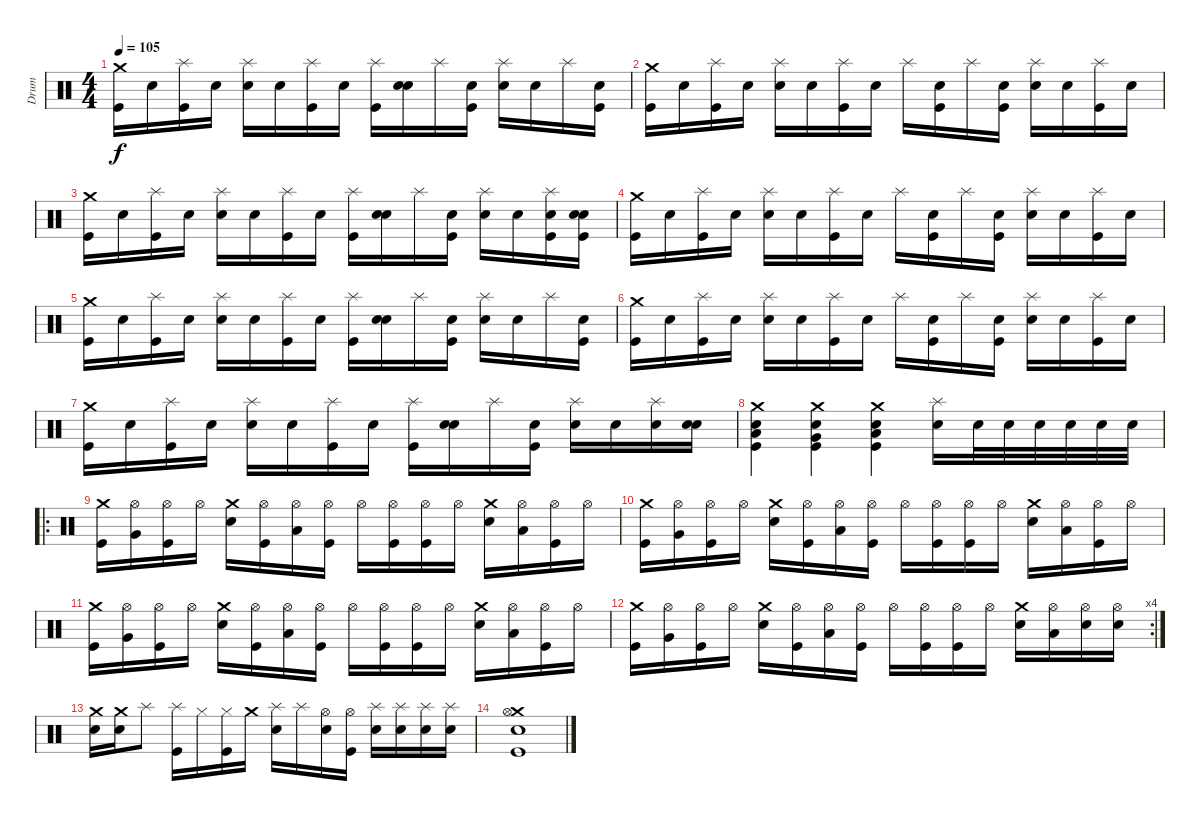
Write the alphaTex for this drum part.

\track ("Drum" "Drum") {instrument percussion}
\staff {score}
\articulation defaults
\ts (4 4)
\tempo 105
\clef neutral
\ks c
("Crash medium (hit)" "Kick (hit)").16{dy f} "Snare (hit)".16 ("Splash (hit)" "Kick (hit)").16 "Snare (hit)".16 ("Splash (hit)" "Electric Snare (hit)").16 "Snare (hit)".16 ("Splash (hit)" "Kick (hit)").16 "Snare (hit)".16 ("Splash (hit)" "Kick (hit)").16 ("Snare (hit)" "Electric Snare (hit)").16 "Splash (hit)".16 ("Snare (hit)" "Kick (hit)").16 ("Splash (hit)" "Electric Snare (hit)").16 "Snare (hit)".16 "Splash (hit)".16 ("Snare (hit)" "Kick (hit)").16 |
("Crash medium (hit)" "Kick (hit)").16 "Snare (hit)".16 ("Splash (hit)" "Kick (hit)").16 "Snare (hit)".16 ("Splash (hit)" "Electric Snare (hit)").16 "Snare (hit)".16 ("Splash (hit)" "Kick (hit)").16 "Snare (hit)".16 "Splash (hit)".16 ("Snare (hit)" "Kick (hit)").16 "Splash (hit)".16 ("Snare (hit)" "Kick (hit)").16 ("Splash (hit)" "Electric Snare (hit)").16 "Snare (hit)".16 ("Splash (hit)" "Kick (hit)").16 "Snare (hit)".16 |
("Crash medium (hit)" "Kick (hit)").16 "Snare (hit)".16 ("Splash (hit)" "Kick (hit)").16 "Snare (hit)".16 ("Splash (hit)" "Electric Snare (hit)").16 "Snare (hit)".16 ("Splash (hit)" "Kick (hit)").16 "Snare (hit)".16 ("Splash (hit)" "Kick (hit)").16 ("Snare (hit)" "Electric Snare (hit)").16 "Splash (hit)".16 ("Snare (hit)" "Kick (hit)").16 ("Splash (hit)" "Electric Snare (hit)").16 "Snare (hit)".16 ("Splash (hit)" "Electric Snare (hit)" "Kick (hit)").16 ("Snare (hit)" "Electric Snare (hit)" "Kick (hit)").16 |
("Crash medium (hit)" "Kick (hit)").16 "Snare (hit)".16 ("Splash (hit)" "Kick (hit)").16 "Snare (hit)".16 ("Splash (hit)" "Electric Snare (hit)").16 "Snare (hit)".16 ("Splash (hit)" "Kick (hit)").16 "Snare (hit)".16 "Splash (hit)".16 ("Snare (hit)" "Kick (hit)").16 "Splash (hit)".16 ("Snare (hit)" "Kick (hit)").16 ("Splash (hit)" "Electric Snare (hit)").16 "Snare (hit)".16 ("Splash (hit)" "Kick (hit)").16 "Snare (hit)".16 |
("Crash medium (hit)" "Kick (hit)").16 "Snare (hit)".16 ("Splash (hit)" "Kick (hit)").16 "Snare (hit)".16 ("Splash (hit)" "Electric Snare (hit)").16 "Snare (hit)".16 ("Splash (hit)" "Kick (hit)").16 "Snare (hit)".16 ("Splash (hit)" "Kick (hit)").16 ("Snare (hit)" "Electric Snare (hit)").16 "Splash (hit)".16 ("Snare (hit)" "Kick (hit)").16 ("Splash (hit)" "Electric Snare (hit)").16 "Snare (hit)".16 "Splash (hit)".16 ("Snare (hit)" "Kick (hit)").16 |
("Crash medium (hit)" "Kick (hit)").16 "Snare (hit)".16 ("Splash (hit)" "Kick (hit)").16 "Snare (hit)".16 ("Splash (hit)" "Electric Snare (hit)").16 "Snare (hit)".16 ("Splash (hit)" "Kick (hit)").16 "Snare (hit)".16 "Splash (hit)".16 ("Snare (hit)" "Kick (hit)").16 "Splash (hit)".16 ("Snare (hit)" "Kick (hit)").16 ("Splash (hit)" "Electric Snare (hit)").16 "Snare (hit)".16 ("Splash (hit)" "Kick (hit)").16 "Snare (hit)".16 |
("Crash medium (hit)" "Kick (hit)").16 "Snare (hit)".16 ("Splash (hit)" "Kick (hit)").16 "Snare (hit)".16 ("Splash (hit)" "Electric Snare (hit)").16 "Snare (hit)".16 ("Splash (hit)" "Kick (hit)").16 "Snare (hit)".16 ("Splash (hit)" "Kick (hit)").16 ("Snare (hit)" "Electric Snare (hit)").16 "Splash (hit)".16 ("Snare (hit)" "Kick (hit)").16 ("Splash (hit)" "Electric Snare (hit)").16 "Snare (hit)".16 ("Splash (hit)" "Electric Snare (hit)").16 ("Snare (hit)" "Electric Snare (hit)").16 |
("Crash medium (hit)" "Low Tom (hit)" "Electric Snare (hit)" "Kick (hit)").4 ("Crash medium (hit)" "Very Low Tom (hit)" "Electric Snare (hit)" "Kick (hit)").4 ("Crash medium (hit)" "Low Floor Tom (hit)" "Electric Snare (hit)" "Kick (hit)").4 ("Splash (hit)" "Electric Snare (hit)").16 "Electric Snare (hit)".32 "Electric Snare (hit)".32 "Electric Snare (hit)".32 "Electric Snare (hit)".32 "Electric Snare (hit)".32 "Electric Snare (hit)".32 |
\ro
("Crash medium (hit)" "Kick (hit)").16 ("Hi-Hat (open)" "Very Low Tom (hit)").16 ("Hi-Hat (open)" "Kick (hit)").16 "Hi-Hat (open)".16 ("Crash medium (hit)" "Electric Snare (hit)").16 ("Hi-Hat (open)" "Kick (hit)").16 ("Hi-Hat (open)" "Low Tom (hit)").16 ("Hi-Hat (open)" "Kick (hit)").16 "Hi-Hat (open)".16 ("Hi-Hat (open)" "Kick (hit)").16 ("Hi-Hat (open)" "Kick (hit)").16 "Hi-Hat (open)".16 ("Crash medium (hit)" "Electric Snare (hit)").16 ("Hi-Hat (open)" "Low Floor Tom (hit)").16 ("Hi-Hat (open)" "Kick (hit)").16 "Hi-Hat (open)".16 |
("Crash medium (hit)" "Kick (hit)").16 ("Hi-Hat (open)" "Very Low Tom (hit)").16 ("Hi-Hat (open)" "Kick (hit)").16 "Hi-Hat (open)".16 ("Crash medium (hit)" "Electric Snare (hit)").16 ("Hi-Hat (open)" "Kick (hit)").16 ("Hi-Hat (open)" "Low Tom (hit)").16 ("Hi-Hat (open)" "Kick (hit)").16 "Hi-Hat (open)".16 ("Hi-Hat (open)" "Kick (hit)").16 ("Hi-Hat (open)" "Kick (hit)").16 "Hi-Hat (open)".16 ("Crash medium (hit)" "Electric Snare (hit)").16 ("Hi-Hat (open)" "Low Floor Tom (hit)").16 ("Hi-Hat (open)" "Kick (hit)").16 "Hi-Hat (open)".16 |
("Crash medium (hit)" "Kick (hit)").16 ("Hi-Hat (open)" "Very Low Tom (hit)").16 ("Hi-Hat (open)" "Kick (hit)").16 "Hi-Hat (open)".16 ("Crash medium (hit)" "Electric Snare (hit)").16 ("Hi-Hat (open)" "Kick (hit)").16 ("Hi-Hat (open)" "Low Tom (hit)").16 ("Hi-Hat (open)" "Kick (hit)").16 "Hi-Hat (open)".16 ("Hi-Hat (open)" "Kick (hit)").16 ("Hi-Hat (open)" "Kick (hit)").16 "Hi-Hat (open)".16 ("Crash medium (hit)" "Electric Snare (hit)").16 ("Hi-Hat (open)" "Low Floor Tom (hit)").16 ("Hi-Hat (open)" "Kick (hit)").16 "Hi-Hat (open)".16 |
\rc 4
("Crash medium (hit)" "Kick (hit)").16 ("Hi-Hat (open)" "Very Low Tom (hit)").16 ("Hi-Hat (open)" "Kick (hit)").16 "Hi-Hat (open)".16 ("Crash medium (hit)" "Electric Snare (hit)").16 ("Hi-Hat (open)" "Kick (hit)").16 ("Hi-Hat (open)" "Low Tom (hit)").16 ("Hi-Hat (open)" "Kick (hit)").16 "Hi-Hat (open)".16 ("Hi-Hat (open)" "Kick (hit)").16 ("Hi-Hat (open)" "Kick (hit)").16 "Hi-Hat (open)".16 ("Crash medium (hit)" "Electric Snare (hit)").16 ("Hi-Hat (open)" "Low Floor Tom (hit)").16 ("Hi-Hat (open)" "Electric Snare (hit)").16 ("Hi-Hat (open)" "Electric Snare (hit)").16 |
("Crash medium (hit)" "Electric Snare (hit)").16 ("Crash medium (hit)" "Electric Snare (hit)").16 "Splash (hit)".8 ("Splash (hit)" "Kick (hit)").16 "Hi-Hat (closed)".16 ("Hi-Hat (closed)" "Kick (hit)").16 "Crash medium (hit)".16 ("Splash (hit)" "Electric Snare (hit)").16 "Splash (hit)".16 ("Hi-Hat (open)" "Electric Snare (hit)").16 ("Hi-Hat (open)" "Kick (hit)").16 ("Splash (hit)" "Electric Snare (hit)").16 ("Splash (hit)" "Electric Snare (hit)").16 ("Splash (hit)" "Electric Snare (hit)").16 ("Splash (hit)" "Electric Snare (hit)").16 |
("Crash medium (hit)" "Hi-Hat (open)" "Electric Snare (hit)" "Kick (hit)").1
